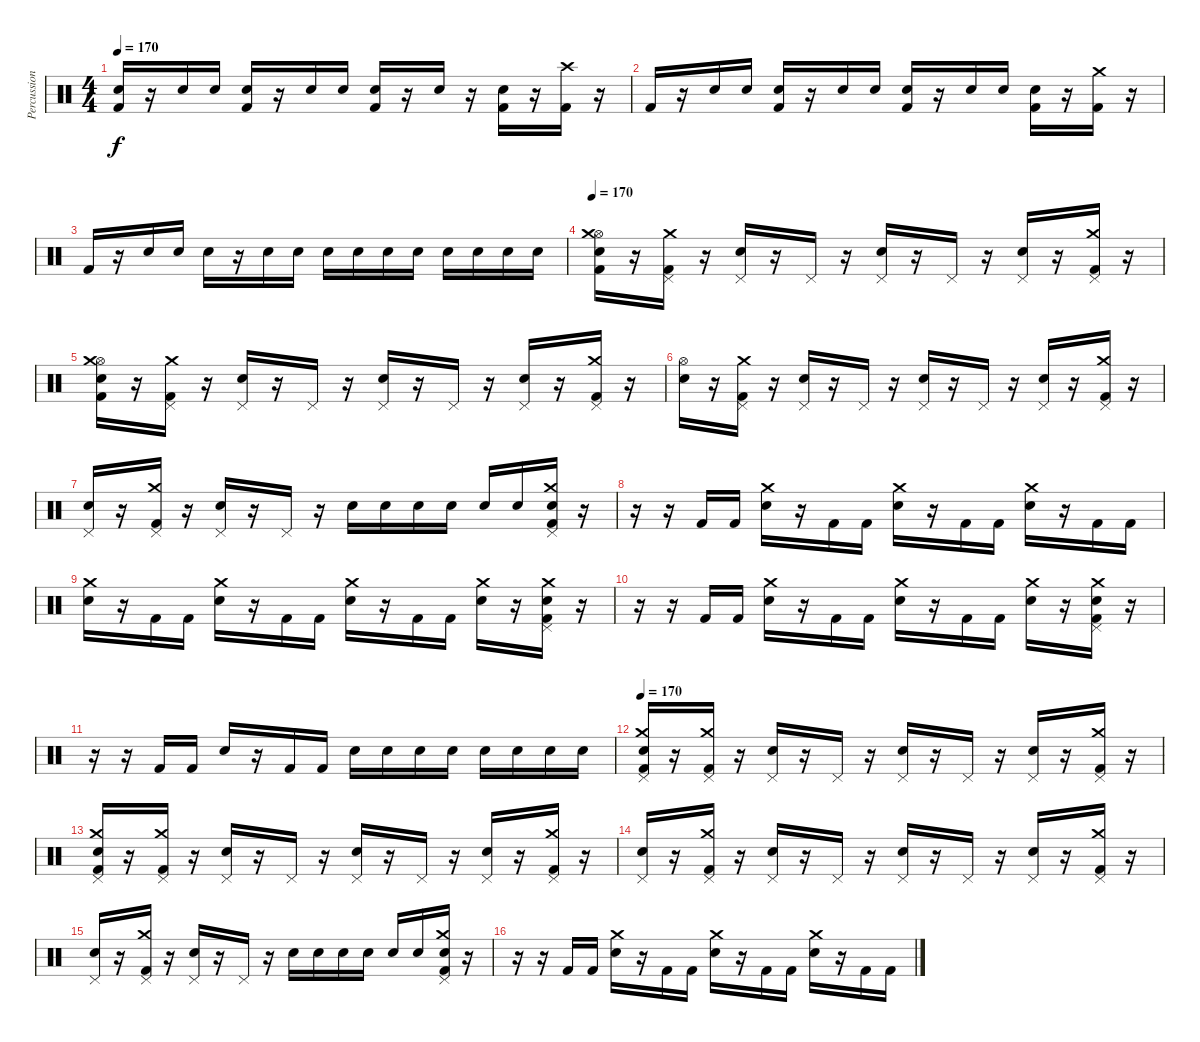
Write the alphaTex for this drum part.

\track ("Percussion" "Percussion") {instrument percussion}
\staff {score}
\articulation defaults
\ts (4 4)
\tempo 170
\clef neutral
\ks c
("Electric Snare (hit)" "Kick (hit) 2").16{dy f} r.16 "Electric Snare (hit)".16 "Electric Snare (hit)".16 ("Electric Snare (hit)" "Kick (hit) 2").16 r.16 "Electric Snare (hit)".16 "Electric Snare (hit)".16 ("Electric Snare (hit)" "Kick (hit) 2").16 r.16 "Electric Snare (hit)".16 r.16 ("Electric Snare (hit)" "Kick (hit) 2").16 r.16 ("Crash high (hit)" "Kick (hit) 2").16 r.16 |
"Kick (hit) 2".16 r.16 "Electric Snare (hit)".16 "Electric Snare (hit)".16 ("Electric Snare (hit)" "Kick (hit) 2").16 r.16 "Electric Snare (hit)".16 "Electric Snare (hit)".16 ("Electric Snare (hit)" "Kick (hit) 2").16 r.16 "Electric Snare (hit)".16 "Electric Snare (hit)".16 ("Electric Snare (hit)" "Kick (hit) 2").16 r.16 ("Crash medium (hit)" "Kick (hit) 2").16 r.16 |
"Kick (hit) 2".16 r.16 "Electric Snare (hit)".16 "Electric Snare (hit)".16 "Electric Snare (hit)".16 r.16 "Electric Snare (hit)".16 "Electric Snare (hit)".16 "Electric Snare (hit)".16 "Electric Snare (hit)".16 "Electric Snare (hit)".16 "Electric Snare (hit)".16 "Electric Snare (hit)".16 "Electric Snare (hit)".16 "Electric Snare (hit)".16 "Electric Snare (hit)".16 |
\tempo 170
("Hi-Hat (open)" "Crash medium (hit)" "Electric Snare (hit)" "Kick (hit) 2").16 r.16 ("Pedal Hi-Hat (hit)" "Crash medium (hit)" "Kick (hit) 2").16 r.16 ("Pedal Hi-Hat (hit)" "Electric Snare (hit)").16 r.16 "Pedal Hi-Hat (hit)".16 r.16 ("Pedal Hi-Hat (hit)" "Electric Snare (hit)").16 r.16 "Pedal Hi-Hat (hit)".16 r.16 ("Pedal Hi-Hat (hit)" "Electric Snare (hit)").16 r.16 ("Pedal Hi-Hat (hit)" "Crash medium (hit)" "Kick (hit) 2").16 r.16 |
("Hi-Hat (open)" "Crash medium (hit)" "Electric Snare (hit)" "Kick (hit) 2").16 r.16 ("Pedal Hi-Hat (hit)" "Crash medium (hit)" "Kick (hit) 2").16 r.16 ("Pedal Hi-Hat (hit)" "Electric Snare (hit)").16 r.16 "Pedal Hi-Hat (hit)".16 r.16 ("Pedal Hi-Hat (hit)" "Electric Snare (hit)").16 r.16 "Pedal Hi-Hat (hit)".16 r.16 ("Pedal Hi-Hat (hit)" "Electric Snare (hit)").16 r.16 ("Pedal Hi-Hat (hit)" "Crash medium (hit)" "Kick (hit) 2").16 r.16 |
("Hi-Hat (open)" "Electric Snare (hit)").16 r.16 ("Pedal Hi-Hat (hit)" "Crash medium (hit)" "Kick (hit) 2").16 r.16 ("Pedal Hi-Hat (hit)" "Electric Snare (hit)").16 r.16 "Pedal Hi-Hat (hit)".16 r.16 ("Pedal Hi-Hat (hit)" "Electric Snare (hit)").16 r.16 "Pedal Hi-Hat (hit)".16 r.16 ("Pedal Hi-Hat (hit)" "Electric Snare (hit)").16 r.16 ("Pedal Hi-Hat (hit)" "Crash medium (hit)" "Kick (hit) 2").16 r.16 |
("Pedal Hi-Hat (hit)" "Electric Snare (hit)").16 r.16 ("Pedal Hi-Hat (hit)" "Crash medium (hit)" "Kick (hit) 2").16 r.16 ("Pedal Hi-Hat (hit)" "Electric Snare (hit)").16 r.16 "Pedal Hi-Hat (hit)".16 r.16 "Electric Snare (hit)".16 "Electric Snare (hit)".16 "Electric Snare (hit)".16 "Electric Snare (hit)".16 "Electric Snare (hit)".16 "Electric Snare (hit)".16 ("Pedal Hi-Hat (hit)" "Crash medium (hit)" "Electric Snare (hit)" "Kick (hit) 2").16 r.16 |
r.16 r.16 "Kick (hit) 2".16 "Kick (hit) 2".16 ("Crash medium (hit)" "Electric Snare (hit)").16 r.16 "Kick (hit) 2".16 "Kick (hit) 2".16 ("Crash medium (hit)" "Electric Snare (hit)").16 r.16 "Kick (hit) 2".16 "Kick (hit) 2".16 ("Crash medium (hit)" "Electric Snare (hit)").16 r.16 "Kick (hit) 2".16 "Kick (hit) 2".16 |
("Crash medium (hit)" "Electric Snare (hit)").16 r.16 "Kick (hit) 2".16 "Kick (hit) 2".16 ("Crash medium (hit)" "Electric Snare (hit)").16 r.16 "Kick (hit) 2".16 "Kick (hit) 2".16 ("Crash medium (hit)" "Electric Snare (hit)").16 r.16 "Kick (hit) 2".16 "Kick (hit) 2".16 ("Crash medium (hit)" "Electric Snare (hit)").16 r.16 ("Pedal Hi-Hat (hit)" "Crash medium (hit)" "Electric Snare (hit)" "Kick (hit) 2").16 r.16 |
r.16 r.16 "Kick (hit) 2".16 "Kick (hit) 2".16 ("Crash medium (hit)" "Electric Snare (hit)").16 r.16 "Kick (hit) 2".16 "Kick (hit) 2".16 ("Crash medium (hit)" "Electric Snare (hit)").16 r.16 "Kick (hit) 2".16 "Kick (hit) 2".16 ("Crash medium (hit)" "Electric Snare (hit)").16 r.16 ("Pedal Hi-Hat (hit)" "Crash medium (hit)" "Electric Snare (hit)" "Kick (hit) 2").16 r.16 |
r.16 r.16 "Kick (hit) 2".16 "Kick (hit) 2".16 "Electric Snare (hit)".16 r.16 "Kick (hit) 2".16 "Kick (hit) 2".16 "Electric Snare (hit)".16 "Electric Snare (hit)".16 "Electric Snare (hit)".16 "Electric Snare (hit)".16 "Electric Snare (hit)".16 "Electric Snare (hit)".16 "Electric Snare (hit)".16 "Electric Snare (hit)".16 |
\tempo 170
("Pedal Hi-Hat (hit)" "Crash medium (hit)" "Electric Snare (hit)" "Kick (hit) 2").16 r.16 ("Pedal Hi-Hat (hit)" "Crash medium (hit)" "Kick (hit) 2").16 r.16 ("Pedal Hi-Hat (hit)" "Electric Snare (hit)").16 r.16 "Pedal Hi-Hat (hit)".16 r.16 ("Pedal Hi-Hat (hit)" "Electric Snare (hit)").16 r.16 "Pedal Hi-Hat (hit)".16 r.16 ("Pedal Hi-Hat (hit)" "Electric Snare (hit)").16 r.16 ("Pedal Hi-Hat (hit)" "Crash medium (hit)" "Kick (hit) 2").16 r.16 |
("Pedal Hi-Hat (hit)" "Crash medium (hit)" "Electric Snare (hit)" "Kick (hit) 2").16 r.16 ("Pedal Hi-Hat (hit)" "Crash medium (hit)" "Kick (hit) 2").16 r.16 ("Pedal Hi-Hat (hit)" "Electric Snare (hit)").16 r.16 "Pedal Hi-Hat (hit)".16 r.16 ("Pedal Hi-Hat (hit)" "Electric Snare (hit)").16 r.16 "Pedal Hi-Hat (hit)".16 r.16 ("Pedal Hi-Hat (hit)" "Electric Snare (hit)").16 r.16 ("Pedal Hi-Hat (hit)" "Crash medium (hit)" "Kick (hit) 2").16 r.16 |
("Pedal Hi-Hat (hit)" "Electric Snare (hit)").16 r.16 ("Pedal Hi-Hat (hit)" "Crash medium (hit)" "Kick (hit) 2").16 r.16 ("Pedal Hi-Hat (hit)" "Electric Snare (hit)").16 r.16 "Pedal Hi-Hat (hit)".16 r.16 ("Pedal Hi-Hat (hit)" "Electric Snare (hit)").16 r.16 "Pedal Hi-Hat (hit)".16 r.16 ("Pedal Hi-Hat (hit)" "Electric Snare (hit)").16 r.16 ("Pedal Hi-Hat (hit)" "Crash medium (hit)" "Kick (hit) 2").16 r.16 |
("Pedal Hi-Hat (hit)" "Electric Snare (hit)").16 r.16 ("Pedal Hi-Hat (hit)" "Crash medium (hit)" "Kick (hit) 2").16 r.16 ("Pedal Hi-Hat (hit)" "Electric Snare (hit)").16 r.16 "Pedal Hi-Hat (hit)".16 r.16 "Electric Snare (hit)".16 "Electric Snare (hit)".16 "Electric Snare (hit)".16 "Electric Snare (hit)".16 "Electric Snare (hit)".16 "Electric Snare (hit)".16 ("Pedal Hi-Hat (hit)" "Crash medium (hit)" "Electric Snare (hit)" "Kick (hit) 2").16 r.16 |
r.16 r.16 "Kick (hit) 2".16 "Kick (hit) 2".16 ("Crash medium (hit)" "Electric Snare (hit)").16 r.16 "Kick (hit) 2".16 "Kick (hit) 2".16 ("Crash medium (hit)" "Electric Snare (hit)").16 r.16 "Kick (hit) 2".16 "Kick (hit) 2".16 ("Crash medium (hit)" "Electric Snare (hit)").16 r.16 "Kick (hit) 2".16 "Kick (hit) 2".16
